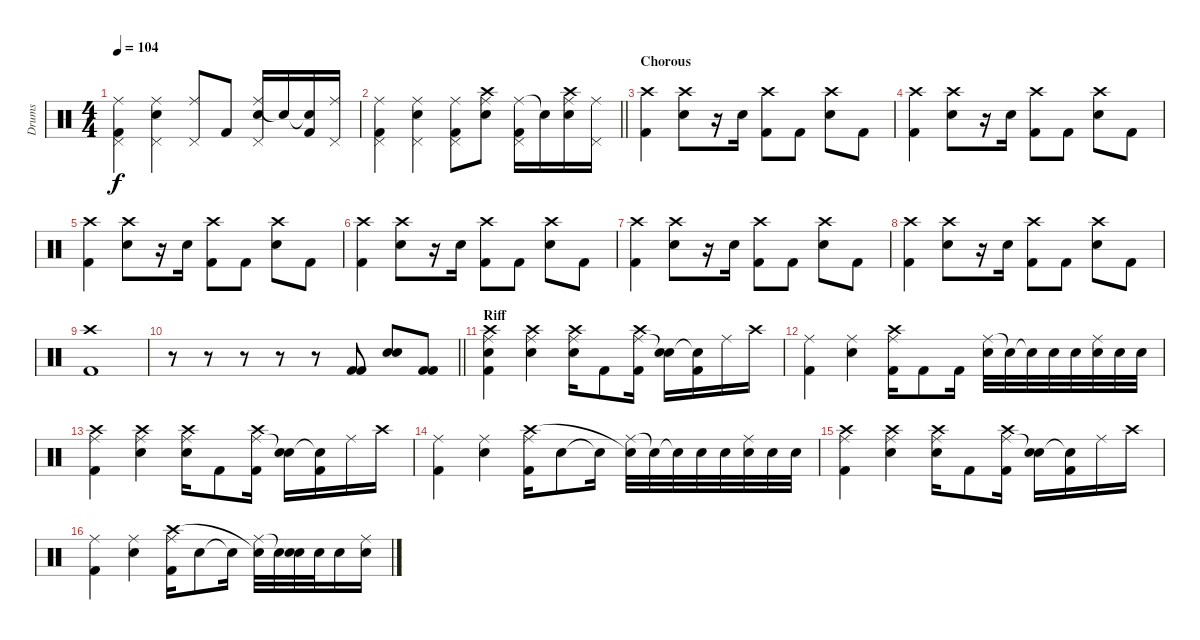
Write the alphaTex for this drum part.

\track ("Drums" "Drums") {instrument percussion}
\staff {score}
\articulation defaults
\ts (4 4)
\tempo 104
\clef neutral
\ks c
("Ride (middle)" "Pedal Hi-Hat (hit)" "Kick (hit) 2").4{dy f} ("Ride (middle)" "Pedal Hi-Hat (hit)" "Electric Snare (hit)").4 ("Ride (middle)" "Pedal Hi-Hat (hit)").8 "Kick (hit) 2".8 ("Ride (middle)" "Pedal Hi-Hat (hit)" "Electric Snare (hit)").16 "Snare (hit)"{t}.16 ("Electric Snare (hit)"{t} "Kick (hit) 2").16 ("Ride (middle)" "Pedal Hi-Hat (hit)").16 |
\barLineRight lightlight
("Ride (middle)" "Pedal Hi-Hat (hit)" "Kick (hit) 2").4 ("Ride (middle)" "Pedal Hi-Hat (hit)" "Electric Snare (hit)").4 ("Ride (middle)" "Pedal Hi-Hat (hit)" "Kick (hit) 2").8 ("Ride (middle)" "Crash high (hit)" "Electric Snare (hit)").8 ("Ride (middle)" "Pedal Hi-Hat (hit)" "Kick (hit) 2").16 "Snare (hit)"{t}.16 ("Ride (middle)" "Crash high (hit)" "Electric Snare (hit)").16 ("Ride (middle)" "Pedal Hi-Hat (hit)").16 |
\section ("" "Chorous")
("Crash high (hit)" "Kick (hit) 2").4 ("Crash high (hit)" "Electric Snare (hit)").8 r.16 "Electric Snare (hit)".16 ("Crash high (hit)" "Kick (hit) 2").8 "Kick (hit) 2".8 ("Crash high (hit)" "Electric Snare (hit)").8 "Kick (hit) 2".8 |
("Crash high (hit)" "Kick (hit) 2").4 ("Crash high (hit)" "Electric Snare (hit)").8 r.16 "Electric Snare (hit)".16 ("Crash high (hit)" "Kick (hit) 2").8 "Kick (hit) 2".8 ("Crash high (hit)" "Electric Snare (hit)").8 "Kick (hit) 2".8 |
("Crash high (hit)" "Kick (hit) 2").4 ("Crash high (hit)" "Electric Snare (hit)").8 r.16 "Electric Snare (hit)".16 ("Crash high (hit)" "Kick (hit) 2").8 "Kick (hit) 2".8 ("Crash high (hit)" "Electric Snare (hit)").8 "Kick (hit) 2".8 |
("Crash high (hit)" "Kick (hit) 2").4 ("Crash high (hit)" "Electric Snare (hit)").8 r.16 "Electric Snare (hit)".16 ("Crash high (hit)" "Kick (hit) 2").8 "Kick (hit) 2".8 ("Crash high (hit)" "Electric Snare (hit)").8 "Kick (hit) 2".8 |
("Crash high (hit)" "Kick (hit) 2").4 ("Crash high (hit)" "Electric Snare (hit)").8 r.16 "Electric Snare (hit)".16 ("Crash high (hit)" "Kick (hit) 2").8 "Kick (hit) 2".8 ("Crash high (hit)" "Electric Snare (hit)").8 "Kick (hit) 2".8 |
("Crash high (hit)" "Kick (hit) 2").4 ("Crash high (hit)" "Electric Snare (hit)").8 r.16 "Electric Snare (hit)".16 ("Crash high (hit)" "Kick (hit) 2").8 "Kick (hit) 2".8 ("Crash high (hit)" "Electric Snare (hit)").8 "Kick (hit) 2".8 |
("Crash high (hit)" "Kick (hit) 2").1 |
\barLineRight lightlight
r.8 r.8 r.8 r.8 r.8 ("Kick (hit) 2" "Kick (hit) 2").8 ("Electric Snare (hit)" "Electric Snare (hit)").8 ("Kick (hit) 2" "Kick (hit) 2").8 |
\section ("" "Riff")
("Ride (middle)" "Electric Snare (hit)" "Kick (hit) 2" "Crash high (hit)").4 ("Ride (middle)" "Crash high (hit)" "Electric Snare (hit)").4 ("Ride (middle)" "Crash high (hit)" "Electric Snare (hit)").16 "Kick (hit) 2".8 ("Ride (middle)" "Crash high (hit)" "Kick (hit) 2").16 ("Snare (hit)"{t} "Electric Snare (hit)").16 ("Electric Snare (hit)"{t} "Kick (hit) 2").16 "Ride (middle)".16 "Crash high (hit)".16 |
("Ride (middle)" "Kick (hit) 2").4 ("Ride (middle)" "Electric Snare (hit)").4 ("Ride (middle)" "Crash high (hit)" "Kick (hit) 2").16 "Kick (hit) 2".8 "Kick (hit) 2".16 ("Ride (middle)" "Electric Snare (hit)").32 "Electric Snare (hit)"{t}.32 "Snare (hit)"{t}.32 "Electric Snare (hit)".32 "Electric Snare (hit)".32 ("Ride (middle)" "Electric Snare (hit)").32 "Electric Snare (hit)".32 "Electric Snare (hit)".32 |
("Ride (middle)" "Crash high (hit)" "Kick (hit) 2").4 ("Ride (middle)" "Crash high (hit)" "Electric Snare (hit)").4 ("Ride (middle)" "Crash high (hit)" "Electric Snare (hit)").16 "Kick (hit) 2".8 ("Ride (middle)" "Crash high (hit)" "Kick (hit) 2").16 ("Snare (hit)"{t} "Electric Snare (hit)").16 ("Electric Snare (hit)"{t} "Kick (hit) 2").16 "Ride (middle)".16 "Crash high (hit)".16 |
("Ride (middle)" "Kick (hit) 2").4 ("Ride (middle)" "Electric Snare (hit)").4 ("Ride (middle)" "Crash high (hit)" "Kick (hit) 2").16 "Electric Snare (hit)".8 "Snare (hit)"{t}.16 ("Ride (middle)" "Electric Snare (hit)"{t}).32 "Electric Snare (hit)"{t}.32 "Snare (hit)"{t}.32 "Electric Snare (hit)".32 "Electric Snare (hit)".32 ("Ride (middle)" "Electric Snare (hit)").32 "Electric Snare (hit)".32 "Electric Snare (hit)".32 |
("Ride (middle)" "Crash high (hit)" "Kick (hit) 2").4 ("Ride (middle)" "Crash high (hit)" "Electric Snare (hit)").4 ("Ride (middle)" "Crash high (hit)" "Electric Snare (hit)").16 "Kick (hit) 2".8 ("Ride (middle)" "Crash high (hit)" "Kick (hit) 2").16 ("Snare (hit)"{t} "Electric Snare (hit)").16 ("Electric Snare (hit)"{t} "Kick (hit) 2").16 "Ride (middle)".16 "Crash high (hit)".16 |
("Ride (middle)" "Kick (hit) 2").4 ("Ride (middle)" "Electric Snare (hit)").4 ("Ride (middle)" "Crash high (hit)" "Kick (hit) 2").16 "Electric Snare (hit)".8 "Snare (hit)"{t}.16 ("Ride (middle)" "Electric Snare (hit)"{t}).32 "Electric Snare (hit)"{t}.32 ("Snare (hit)"{t} "Electric Snare (hit)").32 "Electric Snare (hit)".32 "Electric Snare (hit)".16 ("Ride (middle)" "Electric Snare (hit)").16
